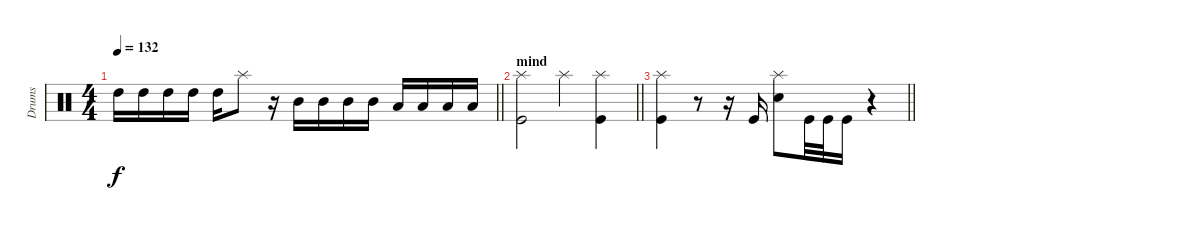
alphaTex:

\track ("Drums" "Drums") {instrument percussion}
\staff {score}
\articulation defaults
\ts (4 4)
\tempo 132
\clef neutral
\barLineRight lightlight
\ks c "High Tom (hit)".16{dy f} "High Tom (hit)".16 "High Tom (hit)".16 "High Tom (hit)".16 "High Tom (hit)".16 "Splash (hit)".8
r.16 "Mid Tom (hit)".16 "Mid Tom (hit)".16 "Mid Tom (hit)".16 "Mid Tom (hit)".16 "Low Tom (hit)".16 "Low Tom (hit)".16 "Low Tom (hit)".16 "Low Tom (hit)".16 |
\section ("" "mind ")
\barLineRight lightlight
("Splash (hit)" "Kick (hit)").2 "Splash (hit)".4 ("Splash (hit)" "Kick (hit)").4 |
\section ("" "")
\barLineRight lightlight
("Splash (hit)" "Kick (hit)").4 r.8 r.16 "Kick (hit)".16 ("Splash (hit)" "Snare (hit) 2").8 "Kick (hit)".32 "Kick (hit)".32 "Kick (hit)".16 r.4
